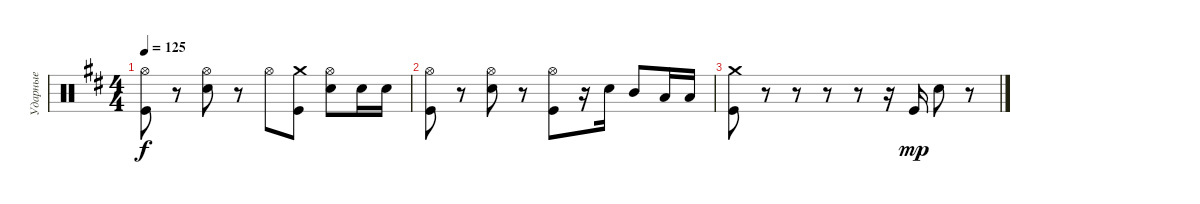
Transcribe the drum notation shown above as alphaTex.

\track ("Ударные" "Ударные") {instrument percussion}
\staff {score}
\articulation defaults
\ts (4 4)
\tempo 125
\clef neutral
\ks d
("Hi-Hat (open)" "Kick (hit)").8{dy f} r.8 ("Hi-Hat (open)" "Electric Snare (hit)").8 r.8 "Hi-Hat (open)".8 ("Crash medium (hit)" "Kick (hit)").8 ("Hi-Hat (open)" "Electric Snare (hit)").8 "Electric Snare (hit)".16 "Electric Snare (hit)".16 |
("Hi-Hat (open)" "Kick (hit)").8 r.8 ("Hi-Hat (open)" "Electric Snare (hit)").8 r.8 ("Hi-Hat (open)" "Kick (hit)").8 r.16 "Electric Snare (hit)".16 "Mid Tom (hit)".8 "Low Tom (hit)".16 "Low Tom (hit)".16 |
("Crash medium (hit)" "Kick (hit)").8 r.8 r.8 r.8 r.8 r.16 "Kick (hit)".16{dy mp} "Electric Snare (hit)".8 r.8
